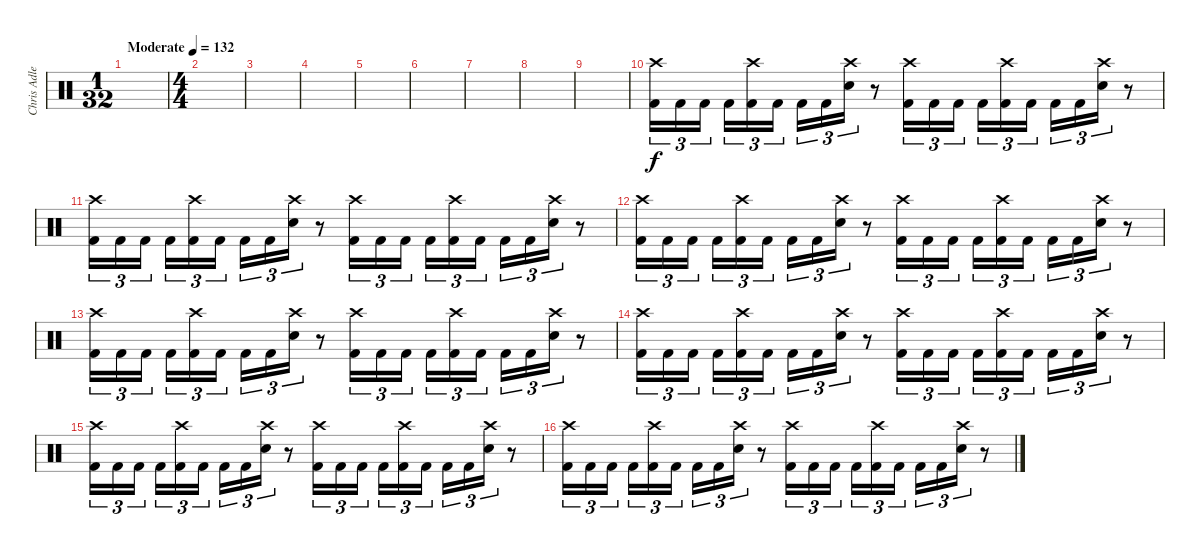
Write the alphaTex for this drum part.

\track ("Chris Adler" "Chris Adle") {instrument percussion}
\staff {score}
\articulation defaults
\ts (1 32)
\tempo (132 "Moderate")
\clef neutral
\ks c
|
\ts (4 4)
|
|
|
|
|
|
|
|
("Crash high (hit)" "Kick (hit) 2").16{tu (3 2)} "Kick (hit) 2".16{tu (3 2)} "Kick (hit) 2".16{tu (3 2) beam splitsecondary} "Kick (hit) 2".16{tu (3 2)} ("Crash high (hit)" "Kick (hit) 2").16{tu (3 2)} "Kick (hit) 2".16{tu (3 2)} "Kick (hit) 2".16{tu (3 2)} "Kick (hit) 2".16{tu (3 2)} ("Crash high (hit)" "Electric Snare (hit)").16{tu (3 2)} r.8 ("Crash high (hit)" "Kick (hit) 2").16{tu (3 2)} "Kick (hit) 2".16{tu (3 2)} "Kick (hit) 2".16{tu (3 2) beam splitsecondary} "Kick (hit) 2".16{tu (3 2)} ("Crash high (hit)" "Kick (hit) 2").16{tu (3 2)} "Kick (hit) 2".16{tu (3 2)} "Kick (hit) 2".16{tu (3 2)} "Kick (hit) 2".16{tu (3 2)} ("Crash high (hit)" "Electric Snare (hit)").16{tu (3 2)} r.8 |
("Crash high (hit)" "Kick (hit) 2").16{tu (3 2)} "Kick (hit) 2".16{tu (3 2)} "Kick (hit) 2".16{tu (3 2) beam splitsecondary} "Kick (hit) 2".16{tu (3 2)} ("Crash high (hit)" "Kick (hit) 2").16{tu (3 2)} "Kick (hit) 2".16{tu (3 2)} "Kick (hit) 2".16{tu (3 2)} "Kick (hit) 2".16{tu (3 2)} ("Crash high (hit)" "Electric Snare (hit)").16{tu (3 2)} r.8 ("Crash high (hit)" "Kick (hit) 2").16{tu (3 2)} "Kick (hit) 2".16{tu (3 2)} "Kick (hit) 2".16{tu (3 2) beam splitsecondary} "Kick (hit) 2".16{tu (3 2)} ("Crash high (hit)" "Kick (hit) 2").16{tu (3 2)} "Kick (hit) 2".16{tu (3 2)} "Kick (hit) 2".16{tu (3 2)} "Kick (hit) 2".16{tu (3 2)} ("Crash high (hit)" "Electric Snare (hit)").16{tu (3 2)} r.8 |
("Crash high (hit)" "Kick (hit) 2").16{tu (3 2)} "Kick (hit) 2".16{tu (3 2)} "Kick (hit) 2".16{tu (3 2) beam splitsecondary} "Kick (hit) 2".16{tu (3 2)} ("Crash high (hit)" "Kick (hit) 2").16{tu (3 2)} "Kick (hit) 2".16{tu (3 2)} "Kick (hit) 2".16{tu (3 2)} "Kick (hit) 2".16{tu (3 2)} ("Crash high (hit)" "Electric Snare (hit)").16{tu (3 2)} r.8 ("Crash high (hit)" "Kick (hit) 2").16{tu (3 2)} "Kick (hit) 2".16{tu (3 2)} "Kick (hit) 2".16{tu (3 2) beam splitsecondary} "Kick (hit) 2".16{tu (3 2)} ("Crash high (hit)" "Kick (hit) 2").16{tu (3 2)} "Kick (hit) 2".16{tu (3 2)} "Kick (hit) 2".16{tu (3 2)} "Kick (hit) 2".16{tu (3 2)} ("Crash high (hit)" "Electric Snare (hit)").16{tu (3 2)} r.8 |
("Crash high (hit)" "Kick (hit) 2").16{tu (3 2)} "Kick (hit) 2".16{tu (3 2)} "Kick (hit) 2".16{tu (3 2) beam splitsecondary} "Kick (hit) 2".16{tu (3 2)} ("Crash high (hit)" "Kick (hit) 2").16{tu (3 2)} "Kick (hit) 2".16{tu (3 2)} "Kick (hit) 2".16{tu (3 2)} "Kick (hit) 2".16{tu (3 2)} ("Crash high (hit)" "Electric Snare (hit)").16{tu (3 2)} r.8 ("Crash high (hit)" "Kick (hit) 2").16{tu (3 2)} "Kick (hit) 2".16{tu (3 2)} "Kick (hit) 2".16{tu (3 2) beam splitsecondary} "Kick (hit) 2".16{tu (3 2)} ("Crash high (hit)" "Kick (hit) 2").16{tu (3 2)} "Kick (hit) 2".16{tu (3 2)} "Kick (hit) 2".16{tu (3 2)} "Kick (hit) 2".16{tu (3 2)} ("Crash high (hit)" "Electric Snare (hit)").16{tu (3 2)} r.8 |
("Crash high (hit)" "Kick (hit) 2").16{tu (3 2)} "Kick (hit) 2".16{tu (3 2)} "Kick (hit) 2".16{tu (3 2) beam splitsecondary} "Kick (hit) 2".16{tu (3 2)} ("Crash high (hit)" "Kick (hit) 2").16{tu (3 2)} "Kick (hit) 2".16{tu (3 2)} "Kick (hit) 2".16{tu (3 2)} "Kick (hit) 2".16{tu (3 2)} ("Crash high (hit)" "Electric Snare (hit)").16{tu (3 2)} r.8 ("Crash high (hit)" "Kick (hit) 2").16{tu (3 2)} "Kick (hit) 2".16{tu (3 2)} "Kick (hit) 2".16{tu (3 2) beam splitsecondary} "Kick (hit) 2".16{tu (3 2)} ("Crash high (hit)" "Kick (hit) 2").16{tu (3 2)} "Kick (hit) 2".16{tu (3 2)} "Kick (hit) 2".16{tu (3 2)} "Kick (hit) 2".16{tu (3 2)} ("Crash high (hit)" "Electric Snare (hit)").16{tu (3 2)} r.8 |
("Crash high (hit)" "Kick (hit) 2").16{tu (3 2)} "Kick (hit) 2".16{tu (3 2)} "Kick (hit) 2".16{tu (3 2) beam splitsecondary} "Kick (hit) 2".16{tu (3 2)} ("Crash high (hit)" "Kick (hit) 2").16{tu (3 2)} "Kick (hit) 2".16{tu (3 2)} "Kick (hit) 2".16{tu (3 2)} "Kick (hit) 2".16{tu (3 2)} ("Crash high (hit)" "Electric Snare (hit)").16{tu (3 2)} r.8 ("Crash high (hit)" "Kick (hit) 2").16{tu (3 2)} "Kick (hit) 2".16{tu (3 2)} "Kick (hit) 2".16{tu (3 2) beam splitsecondary} "Kick (hit) 2".16{tu (3 2)} ("Crash high (hit)" "Kick (hit) 2").16{tu (3 2)} "Kick (hit) 2".16{tu (3 2)} "Kick (hit) 2".16{tu (3 2)} "Kick (hit) 2".16{tu (3 2)} ("Crash high (hit)" "Electric Snare (hit)").16{tu (3 2)} r.8 |
("Crash high (hit)" "Kick (hit) 2").16{tu (3 2)} "Kick (hit) 2".16{tu (3 2)} "Kick (hit) 2".16{tu (3 2) beam splitsecondary} "Kick (hit) 2".16{tu (3 2)} ("Crash high (hit)" "Kick (hit) 2").16{tu (3 2)} "Kick (hit) 2".16{tu (3 2)} "Kick (hit) 2".16{tu (3 2)} "Kick (hit) 2".16{tu (3 2)} ("Crash high (hit)" "Electric Snare (hit)").16{tu (3 2)} r.8 ("Crash high (hit)" "Kick (hit) 2").16{tu (3 2)} "Kick (hit) 2".16{tu (3 2)} "Kick (hit) 2".16{tu (3 2) beam splitsecondary} "Kick (hit) 2".16{tu (3 2)} ("Crash high (hit)" "Kick (hit) 2").16{tu (3 2)} "Kick (hit) 2".16{tu (3 2)} "Kick (hit) 2".16{tu (3 2)} "Kick (hit) 2".16{tu (3 2)} ("Crash high (hit)" "Electric Snare (hit)").16{tu (3 2)} r.8
